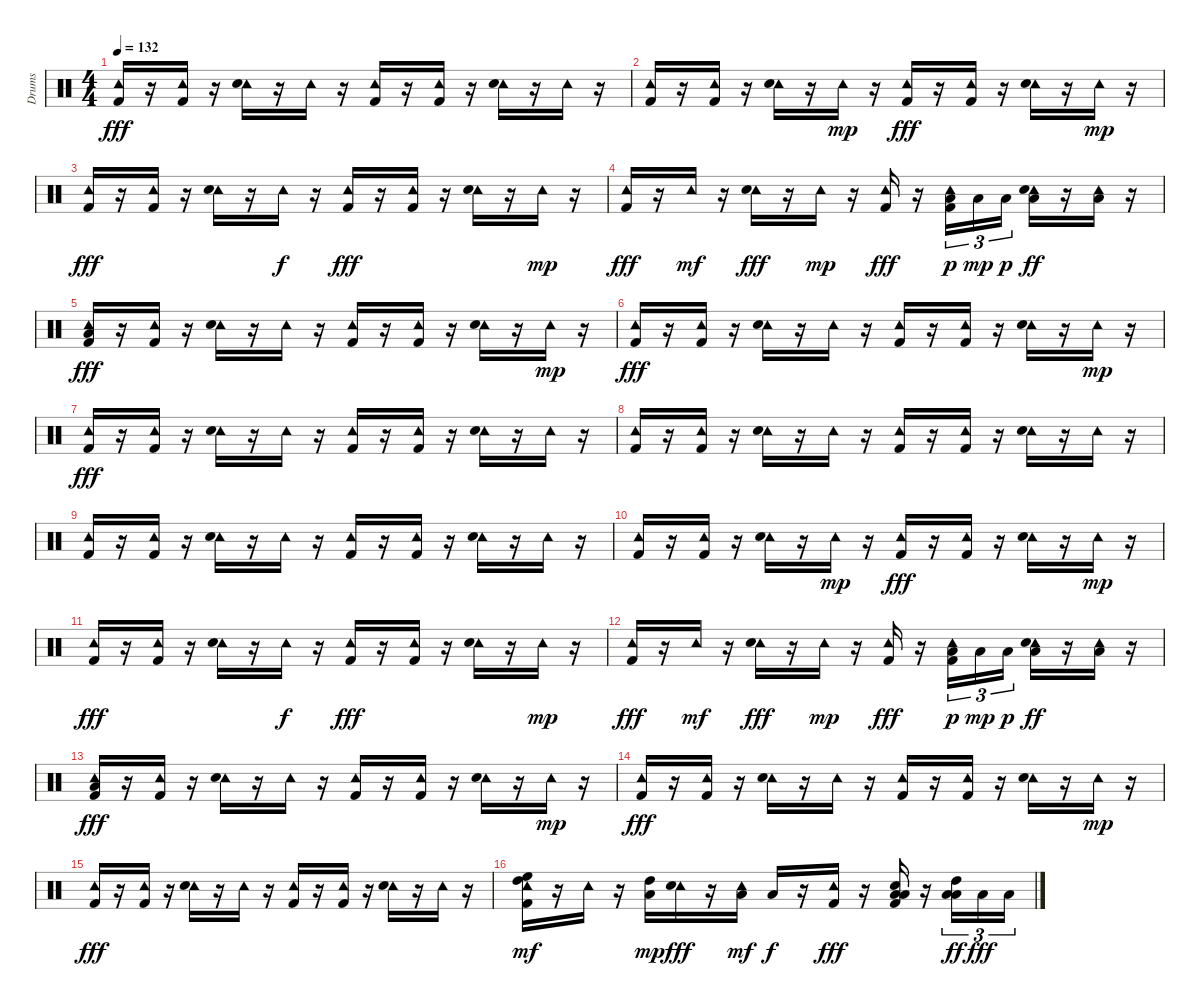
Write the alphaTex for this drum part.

\track ("Drums" "Drums") {instrument percussion}
\staff {score}
\articulation defaults
\ts (4 4)
\tempo 132
\clef neutral
\ks c
("Tambourine (hit)" "Kick (hit) 2").16{dy fff} r.16 ("Tambourine (hit)" "Kick (hit) 2").16 r.16 ("Tambourine (hit)" "Snare (hit) 2").16 r.16 "Tambourine (hit)".16 r.16 ("Tambourine (hit)" "Kick (hit) 2").16 r.16 ("Tambourine (hit)" "Kick (hit) 2").16 r.16 ("Tambourine (hit)" "Snare (hit) 2").16 r.16 "Tambourine (hit)".16 r.16 |
("Tambourine (hit)" "Kick (hit) 2").16 r.16 ("Tambourine (hit)" "Kick (hit) 2").16 r.16 ("Tambourine (hit)" "Snare (hit) 2").16 r.16 "Tambourine (hit)".16{dy mp} r.16 ("Tambourine (hit)" "Kick (hit) 2").16{dy fff} r.16 ("Tambourine (hit)" "Kick (hit) 2").16 r.16 ("Tambourine (hit)" "Snare (hit) 2").16 r.16 "Tambourine (hit)".16{dy mp} r.16 |
("Tambourine (hit)" "Kick (hit) 2").16{dy fff} r.16 ("Tambourine (hit)" "Kick (hit) 2").16 r.16 ("Tambourine (hit)" "Snare (hit) 2").16 r.16 "Tambourine (hit)".16{dy f} r.16 ("Tambourine (hit)" "Kick (hit) 2").16{dy fff} r.16 ("Tambourine (hit)" "Kick (hit) 2").16 r.16 ("Tambourine (hit)" "Snare (hit) 2").16 r.16 "Tambourine (hit)".16{dy mp} r.16 |
("Tambourine (hit)" "Kick (hit) 2").16{dy fff} r.16 "Tambourine (hit)".16{dy mf} r.16 ("Tambourine (hit)" "Snare (hit) 2").16{dy fff} r.16 "Tambourine (hit)".16{dy mp} r.16 ("Tambourine (hit)" "Kick (hit) 2").16{dy fff} r.16 ("Tambourine (hit)" "Kick (hit) 2" "Low Tom (hit)").16{tu (3 2) dy p} "Low Tom (hit)".16{tu (3 2) dy mp} "Low Tom (hit)".16{tu (3 2) dy p} ("Tambourine (hit)" "Snare (hit) 2" "Low Tom (hit)").16{dy ff} r.16 ("Tambourine (hit)" "Low Floor Tom (hit)").16 r.16 |
("Tambourine (hit)" "Kick (hit) 2" "Low Floor Tom (hit)").16{dy fff} r.16 ("Tambourine (hit)" "Kick (hit) 2").16 r.16 ("Tambourine (hit)" "Snare (hit) 2").16 r.16 "Tambourine (hit)".16 r.16 ("Tambourine (hit)" "Kick (hit) 2").16 r.16 ("Tambourine (hit)" "Kick (hit) 2").16 r.16 ("Tambourine (hit)" "Snare (hit) 2").16 r.16 "Tambourine (hit)".16{dy mp} r.16 |
("Tambourine (hit)" "Kick (hit) 2").16{dy fff} r.16 ("Tambourine (hit)" "Kick (hit) 2").16 r.16 ("Tambourine (hit)" "Snare (hit) 2").16 r.16 "Tambourine (hit)".16 r.16 ("Tambourine (hit)" "Kick (hit) 2").16 r.16 ("Tambourine (hit)" "Kick (hit) 2").16 r.16 ("Tambourine (hit)" "Snare (hit) 2").16 r.16 "Tambourine (hit)".16{dy mp} r.16 |
("Tambourine (hit)" "Kick (hit) 2").16{dy fff} r.16 ("Tambourine (hit)" "Kick (hit) 2").16 r.16 ("Tambourine (hit)" "Snare (hit) 2").16 r.16 "Tambourine (hit)".16 r.16 ("Tambourine (hit)" "Kick (hit) 2").16 r.16 ("Tambourine (hit)" "Kick (hit) 2").16 r.16 ("Tambourine (hit)" "Snare (hit) 2").16 r.16 "Tambourine (hit)".16 r.16 |
("Tambourine (hit)" "Kick (hit) 2").16 r.16 ("Tambourine (hit)" "Kick (hit) 2").16 r.16 ("Tambourine (hit)" "Snare (hit) 2").16 r.16 "Tambourine (hit)".16 r.16 ("Tambourine (hit)" "Kick (hit) 2").16 r.16 ("Tambourine (hit)" "Kick (hit) 2").16 r.16 ("Tambourine (hit)" "Snare (hit) 2").16 r.16 "Tambourine (hit)".16 r.16 |
("Tambourine (hit)" "Kick (hit) 2").16 r.16 ("Tambourine (hit)" "Kick (hit) 2").16 r.16 ("Tambourine (hit)" "Snare (hit) 2").16 r.16 "Tambourine (hit)".16 r.16 ("Tambourine (hit)" "Kick (hit) 2").16 r.16 ("Tambourine (hit)" "Kick (hit) 2").16 r.16 ("Tambourine (hit)" "Snare (hit) 2").16 r.16 "Tambourine (hit)".16 r.16 |
("Tambourine (hit)" "Kick (hit) 2").16 r.16 ("Tambourine (hit)" "Kick (hit) 2").16 r.16 ("Tambourine (hit)" "Snare (hit) 2").16 r.16 "Tambourine (hit)".16{dy mp} r.16 ("Tambourine (hit)" "Kick (hit) 2").16{dy fff} r.16 ("Tambourine (hit)" "Kick (hit) 2").16 r.16 ("Tambourine (hit)" "Snare (hit) 2").16 r.16 "Tambourine (hit)".16{dy mp} r.16 |
("Tambourine (hit)" "Kick (hit) 2").16{dy fff} r.16 ("Tambourine (hit)" "Kick (hit) 2").16 r.16 ("Tambourine (hit)" "Snare (hit) 2").16 r.16 "Tambourine (hit)".16{dy f} r.16 ("Tambourine (hit)" "Kick (hit) 2").16{dy fff} r.16 ("Tambourine (hit)" "Kick (hit) 2").16 r.16 ("Tambourine (hit)" "Snare (hit) 2").16 r.16 "Tambourine (hit)".16{dy mp} r.16 |
("Tambourine (hit)" "Kick (hit) 2").16{dy fff} r.16 "Tambourine (hit)".16{dy mf} r.16 ("Tambourine (hit)" "Snare (hit) 2").16{dy fff} r.16 "Tambourine (hit)".16{dy mp} r.16 ("Tambourine (hit)" "Kick (hit) 2").16{dy fff} r.16 ("Tambourine (hit)" "Kick (hit) 2" "Low Tom (hit)").16{tu (3 2) dy p} "Low Tom (hit)".16{tu (3 2) dy mp} "Low Tom (hit)".16{tu (3 2) dy p} ("Tambourine (hit)" "Snare (hit) 2" "Low Tom (hit)").16{dy ff} r.16 ("Tambourine (hit)" "Low Floor Tom (hit)").16 r.16 |
("Tambourine (hit)" "Kick (hit) 2" "Low Floor Tom (hit)").16{dy fff} r.16 ("Tambourine (hit)" "Kick (hit) 2").16 r.16 ("Tambourine (hit)" "Snare (hit) 2").16 r.16 "Tambourine (hit)".16 r.16 ("Tambourine (hit)" "Kick (hit) 2").16 r.16 ("Tambourine (hit)" "Kick (hit) 2").16 r.16 ("Tambourine (hit)" "Snare (hit) 2").16 r.16 "Tambourine (hit)".16{dy mp} r.16 |
("Tambourine (hit)" "Kick (hit) 2").16{dy fff} r.16 ("Tambourine (hit)" "Kick (hit) 2").16 r.16 ("Tambourine (hit)" "Snare (hit) 2").16 r.16 "Tambourine (hit)".16 r.16 ("Tambourine (hit)" "Kick (hit) 2").16 r.16 ("Tambourine (hit)" "Kick (hit) 2").16 r.16 ("Tambourine (hit)" "Snare (hit) 2").16 r.16 "Tambourine (hit)".16{dy mp} r.16 |
("Tambourine (hit)" "Kick (hit) 2").16{dy fff} r.16 ("Tambourine (hit)" "Kick (hit) 2").16 r.16 ("Tambourine (hit)" "Snare (hit) 2").16 r.16 "Tambourine (hit)".16 r.16 ("Tambourine (hit)" "Kick (hit) 2").16 r.16 ("Tambourine (hit)" "Kick (hit) 2").16 r.16 ("Tambourine (hit)" "Snare (hit) 2").16 r.16 "Tambourine (hit)".16 r.16 |
("Tambourine (hit)" "Kick (hit) 2" "High Tom (hit)" "High Floor Tom (hit)").16{dy mf} r.16 "Tambourine (hit)".16 r.16 ("High Tom (hit)" "Low Tom (hit)").16{dy mp} ("Tambourine (hit)" "Snare (hit) 2").16{dy fff} r.16 ("Tambourine (hit)" "Low Floor Tom (hit)").16{dy mf} "Low Tom (hit)".16{dy f} r.16 ("Tambourine (hit)" "Kick (hit) 2").16{dy fff} r.16 ("Snare (hit) 2" "Kick (hit) 2" "Low Tom (hit)" "Low Floor Tom (hit)").16 r.16 ("High Tom (hit)" "Low Tom (hit)" "Low Floor Tom (hit)").16{tu (3 2) dy ff} "Low Tom (hit)".16{tu (3 2) dy fff} "Low Floor Tom (hit)".16{tu (3 2)}
